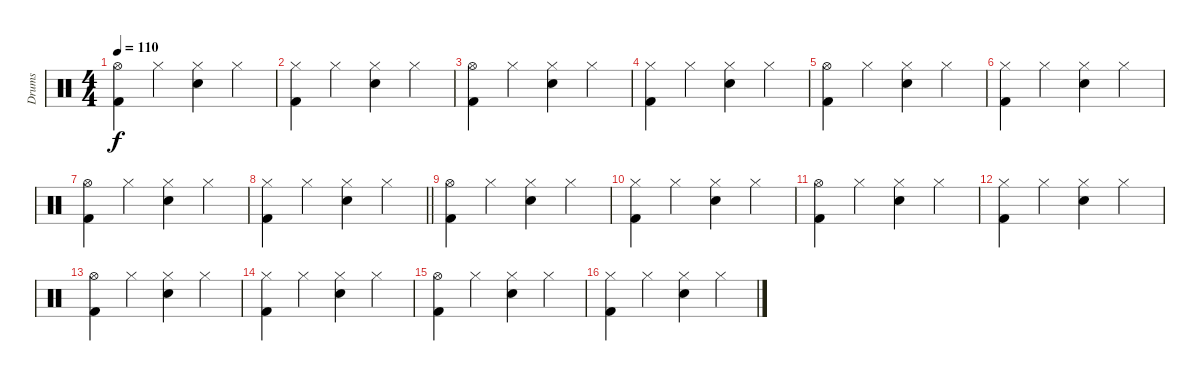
\track ("Drums" "Drums") {instrument percussion}
\staff {score}
\articulation defaults
\ts (4 4)
\tempo 110
\clef neutral
\ks c
("Kick (hit) 2" "Hi-Hat (open)").4{dy f} "Hi-Hat (closed)".4 ("Electric Snare (hit)" "Hi-Hat (closed)").4 "Hi-Hat (closed)".4 |
("Kick (hit) 2" "Hi-Hat (closed)").4 "Hi-Hat (closed)".4 ("Electric Snare (hit)" "Hi-Hat (closed)").4 "Hi-Hat (closed)".4 |
("Kick (hit) 2" "Hi-Hat (open)").4 "Hi-Hat (closed)".4 ("Electric Snare (hit)" "Hi-Hat (closed)").4 "Hi-Hat (closed)".4 |
("Kick (hit) 2" "Hi-Hat (closed)").4 "Hi-Hat (closed)".4 ("Electric Snare (hit)" "Hi-Hat (closed)").4 "Hi-Hat (closed)".4 |
("Kick (hit) 2" "Hi-Hat (open)").4 "Hi-Hat (closed)".4 ("Electric Snare (hit)" "Hi-Hat (closed)").4 "Hi-Hat (closed)".4 |
("Kick (hit) 2" "Hi-Hat (closed)").4 "Hi-Hat (closed)".4 ("Electric Snare (hit)" "Hi-Hat (closed)").4 "Hi-Hat (closed)".4 |
("Kick (hit) 2" "Hi-Hat (open)").4 "Hi-Hat (closed)".4 ("Electric Snare (hit)" "Hi-Hat (closed)").4 "Hi-Hat (closed)".4 |
\barLineRight lightlight
("Kick (hit) 2" "Hi-Hat (closed)").4 "Hi-Hat (closed)".4 ("Electric Snare (hit)" "Hi-Hat (closed)").4 "Hi-Hat (closed)".4 |
("Kick (hit) 2" "Hi-Hat (open)").4 "Hi-Hat (closed)".4 ("Electric Snare (hit)" "Hi-Hat (closed)").4 "Hi-Hat (closed)".4 |
("Kick (hit) 2" "Hi-Hat (closed)").4 "Hi-Hat (closed)".4 ("Electric Snare (hit)" "Hi-Hat (closed)").4 "Hi-Hat (closed)".4 |
("Kick (hit) 2" "Hi-Hat (open)").4 "Hi-Hat (closed)".4 ("Electric Snare (hit)" "Hi-Hat (closed)").4 "Hi-Hat (closed)".4 |
("Kick (hit) 2" "Hi-Hat (closed)").4 "Hi-Hat (closed)".4 ("Electric Snare (hit)" "Hi-Hat (closed)").4 "Hi-Hat (closed)".4 |
("Kick (hit) 2" "Hi-Hat (open)").4 "Hi-Hat (closed)".4 ("Electric Snare (hit)" "Hi-Hat (closed)").4 "Hi-Hat (closed)".4 |
("Kick (hit) 2" "Hi-Hat (closed)").4 "Hi-Hat (closed)".4 ("Electric Snare (hit)" "Hi-Hat (closed)").4 "Hi-Hat (closed)".4 |
("Kick (hit) 2" "Hi-Hat (open)").4 "Hi-Hat (closed)".4 ("Electric Snare (hit)" "Hi-Hat (closed)").4 "Hi-Hat (closed)".4 |
("Kick (hit) 2" "Hi-Hat (closed)").4 "Hi-Hat (closed)".4 ("Electric Snare (hit)" "Hi-Hat (closed)").4 "Hi-Hat (closed)".4
